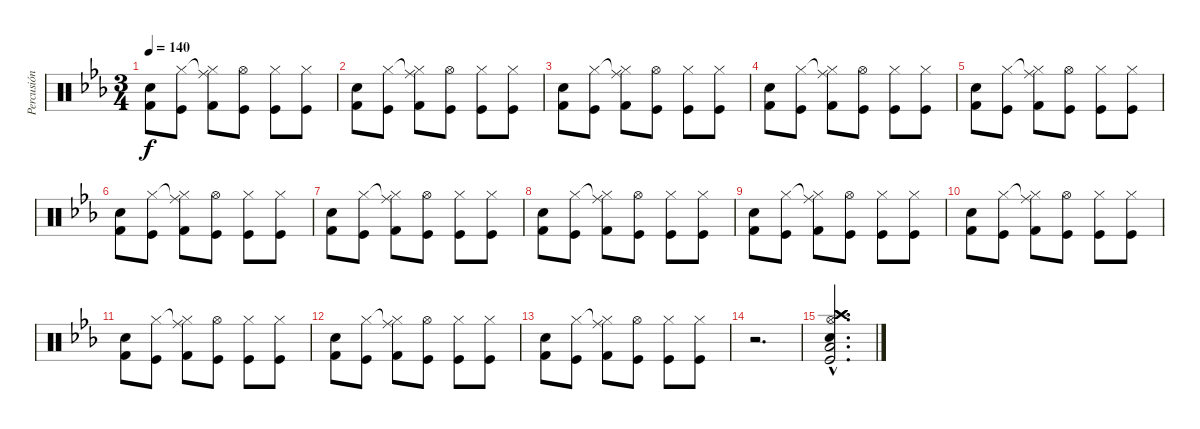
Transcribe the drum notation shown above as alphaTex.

\track ("Percusión" "Percusión") {instrument percussion}
\staff {score}
\articulation defaults
\ts (3 4)
\tempo 140
\clef neutral
\ks cminor
("Electric Snare (hit)" "Kick (hit) 2").8{dy f} ("Hi-Hat (closed)" "Kick (hit)").8 ("Ride (middle)"{t} "Hi-Hat (closed)" "Kick (hit) 2").8 ("Hi-Hat (open)" "Kick (hit)").8 ("Hi-Hat (closed)" "Kick (hit)").8 ("Hi-Hat (closed)" "Kick (hit)").8 |
("Electric Snare (hit)" "Kick (hit) 2").8 ("Hi-Hat (closed)" "Kick (hit)").8 ("Ride (middle)"{t} "Hi-Hat (closed)" "Kick (hit) 2").8 ("Hi-Hat (open)" "Kick (hit)").8 ("Hi-Hat (closed)" "Kick (hit)").8 ("Hi-Hat (closed)" "Kick (hit)").8 |
("Electric Snare (hit)" "Kick (hit) 2").8 ("Hi-Hat (closed)" "Kick (hit)").8 ("Ride (middle)"{t} "Hi-Hat (closed)" "Kick (hit) 2").8 ("Hi-Hat (open)" "Kick (hit)").8 ("Hi-Hat (closed)" "Kick (hit)").8 ("Hi-Hat (closed)" "Kick (hit)").8 |
("Electric Snare (hit)" "Kick (hit) 2").8 ("Hi-Hat (closed)" "Kick (hit)").8 ("Ride (middle)"{t} "Hi-Hat (closed)" "Kick (hit) 2").8 ("Hi-Hat (open)" "Kick (hit)").8 ("Hi-Hat (closed)" "Kick (hit)").8 ("Hi-Hat (closed)" "Kick (hit)").8 |
("Electric Snare (hit)" "Kick (hit) 2").8 ("Hi-Hat (closed)" "Kick (hit)").8 ("Ride (middle)"{t} "Hi-Hat (closed)" "Kick (hit) 2").8 ("Hi-Hat (open)" "Kick (hit)").8 ("Hi-Hat (closed)" "Kick (hit)").8 ("Hi-Hat (closed)" "Kick (hit)").8 |
("Electric Snare (hit)" "Kick (hit) 2").8 ("Hi-Hat (closed)" "Kick (hit)").8 ("Ride (middle)"{t} "Hi-Hat (closed)" "Kick (hit) 2").8 ("Hi-Hat (open)" "Kick (hit)").8 ("Hi-Hat (closed)" "Kick (hit)").8 ("Hi-Hat (closed)" "Kick (hit)").8 |
("Electric Snare (hit)" "Kick (hit) 2").8 ("Hi-Hat (closed)" "Kick (hit)").8 ("Ride (middle)"{t} "Hi-Hat (closed)" "Kick (hit) 2").8 ("Hi-Hat (open)" "Kick (hit)").8 ("Hi-Hat (closed)" "Kick (hit)").8 ("Hi-Hat (closed)" "Kick (hit)").8 |
("Electric Snare (hit)" "Kick (hit) 2").8 ("Hi-Hat (closed)" "Kick (hit)").8 ("Ride (middle)"{t} "Hi-Hat (closed)" "Kick (hit) 2").8 ("Hi-Hat (open)" "Kick (hit)").8 ("Hi-Hat (closed)" "Kick (hit)").8 ("Hi-Hat (closed)" "Kick (hit)").8 |
("Electric Snare (hit)" "Kick (hit) 2").8 ("Hi-Hat (closed)" "Kick (hit)").8 ("Ride (middle)"{t} "Hi-Hat (closed)" "Kick (hit) 2").8 ("Hi-Hat (open)" "Kick (hit)").8 ("Hi-Hat (closed)" "Kick (hit)").8 ("Hi-Hat (closed)" "Kick (hit)").8 |
("Electric Snare (hit)" "Kick (hit) 2").8 ("Hi-Hat (closed)" "Kick (hit)").8 ("Ride (middle)"{t} "Hi-Hat (closed)" "Kick (hit) 2").8 ("Hi-Hat (open)" "Kick (hit)").8 ("Hi-Hat (closed)" "Kick (hit)").8 ("Hi-Hat (closed)" "Kick (hit)").8 |
("Electric Snare (hit)" "Kick (hit) 2").8 ("Hi-Hat (closed)" "Kick (hit)").8 ("Ride (middle)"{t} "Hi-Hat (closed)" "Kick (hit) 2").8 ("Hi-Hat (open)" "Kick (hit)").8 ("Hi-Hat (closed)" "Kick (hit)").8 ("Hi-Hat (closed)" "Kick (hit)").8 |
("Electric Snare (hit)" "Kick (hit) 2").8 ("Hi-Hat (closed)" "Kick (hit)").8 ("Ride (middle)"{t} "Hi-Hat (closed)" "Kick (hit) 2").8 ("Hi-Hat (open)" "Kick (hit)").8 ("Hi-Hat (closed)" "Kick (hit)").8 ("Hi-Hat (closed)" "Kick (hit)").8 |
("Electric Snare (hit)" "Kick (hit) 2").8 ("Hi-Hat (closed)" "Kick (hit)").8 ("Ride (middle)"{t} "Hi-Hat (closed)" "Kick (hit) 2").8 ("Hi-Hat (open)" "Kick (hit)").8 ("Hi-Hat (closed)" "Kick (hit)").8 ("Hi-Hat (closed)" "Kick (hit)").8 |
r.2{d} |
("Metronome (bell)"{hac} "Crash high (hit)"{hac} "Crash high (hit)"{hac} "Low Tom (hit)"{hac} "Hi-Hat (open)"{hac} "Kick (hit)"{hac}).2{d}
